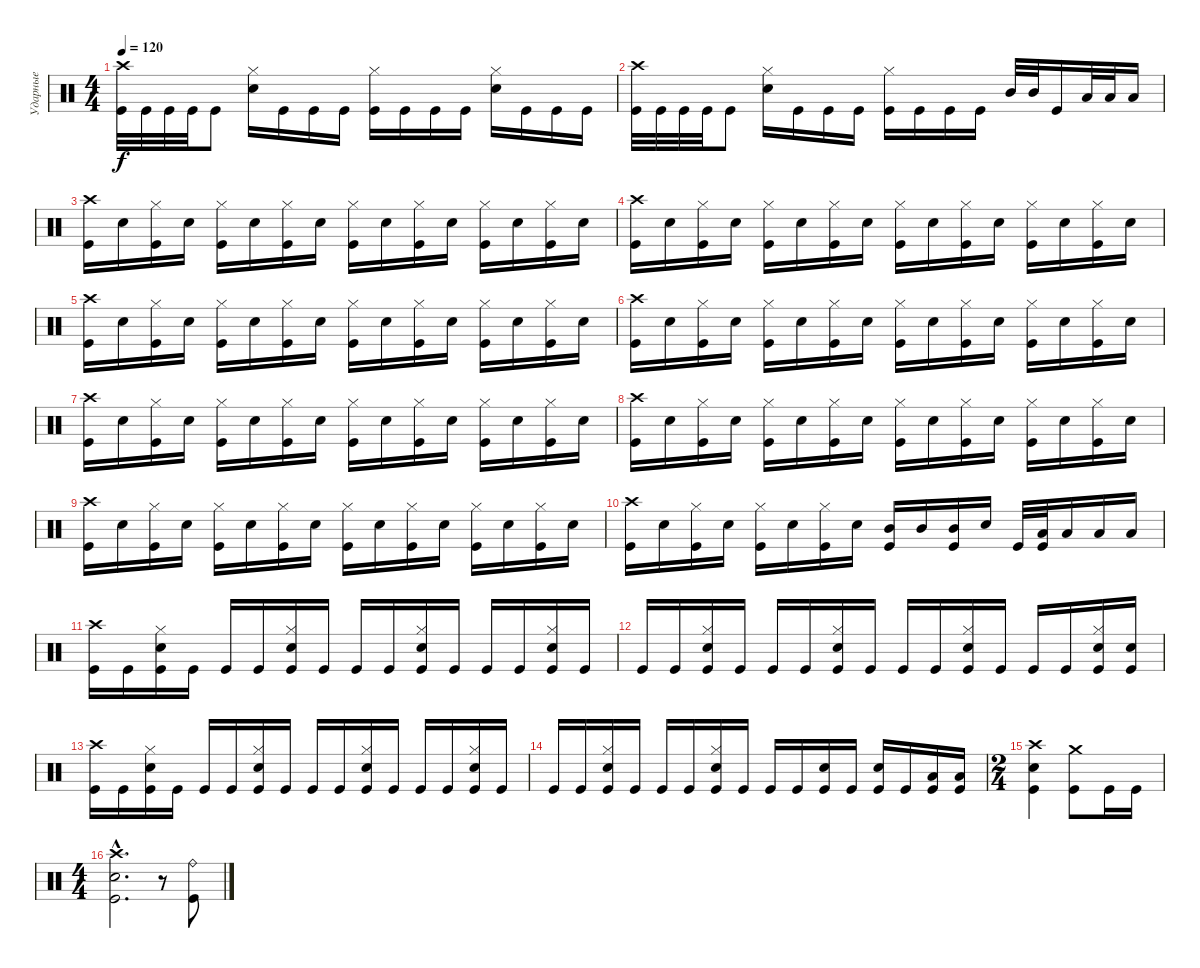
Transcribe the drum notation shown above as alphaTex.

\track ("Ударные" "Ударные") {instrument percussion}
\staff {score}
\articulation defaults
\ts (4 4)
\tempo 120
\clef neutral
\ks c
("Crash high (hit)" "Kick (hit)").32{dy f} "Kick (hit)".32 "Kick (hit)".32 "Kick (hit)".32 "Kick (hit)".8 ("Hi-Hat (closed)" "Electric Snare (hit)").16 "Kick (hit)".16 "Kick (hit)".16 "Kick (hit)".16 ("Hi-Hat (closed)" "Kick (hit)").16 "Kick (hit)".16 "Kick (hit)".16 "Kick (hit)".16 ("Hi-Hat (closed)" "Electric Snare (hit)").16 "Kick (hit)".16 "Kick (hit)".16 "Kick (hit)".16 |
("Crash high (hit)" "Kick (hit)").32 "Kick (hit)".32 "Kick (hit)".32 "Kick (hit)".32 "Kick (hit)".8 ("Hi-Hat (closed)" "Electric Snare (hit)").16 "Kick (hit)".16 "Kick (hit)".16 "Kick (hit)".16 ("Hi-Hat (closed)" "Kick (hit)").16 "Kick (hit)".16 "Kick (hit)".16 "Kick (hit)".16 "Mid Tom (hit)".32 "Mid Tom (hit)".32 "Kick (hit)".16 "Low Tom (hit)".32 "Low Tom (hit)".32 "Low Tom (hit)".16 |
("Kick (hit)" "Crash high (hit)").16 "Electric Snare (hit)".16 ("Kick (hit)" "Hi-Hat (closed)").16 "Electric Snare (hit)".16 ("Kick (hit)" "Hi-Hat (closed)").16 "Electric Snare (hit)".16 ("Kick (hit)" "Hi-Hat (closed)").16 "Electric Snare (hit)".16 ("Hi-Hat (closed)" "Kick (hit)").16 "Electric Snare (hit)".16 ("Kick (hit)" "Hi-Hat (closed)").16 "Electric Snare (hit)".16 ("Hi-Hat (closed)" "Kick (hit)").16 "Electric Snare (hit)".16 ("Hi-Hat (closed)" "Kick (hit)").16 "Electric Snare (hit)".16 |
("Kick (hit)" "Crash high (hit)").16 "Electric Snare (hit)".16 ("Kick (hit)" "Hi-Hat (closed)").16 "Electric Snare (hit)".16 ("Kick (hit)" "Hi-Hat (closed)").16 "Electric Snare (hit)".16 ("Kick (hit)" "Hi-Hat (closed)").16 "Electric Snare (hit)".16 ("Hi-Hat (closed)" "Kick (hit)").16 "Electric Snare (hit)".16 ("Kick (hit)" "Hi-Hat (closed)").16 "Electric Snare (hit)".16 ("Hi-Hat (closed)" "Kick (hit)").16 "Electric Snare (hit)".16 ("Hi-Hat (closed)" "Kick (hit)").16 "Electric Snare (hit)".16 |
("Kick (hit)" "Crash high (hit)").16 "Electric Snare (hit)".16 ("Kick (hit)" "Hi-Hat (closed)").16 "Electric Snare (hit)".16 ("Kick (hit)" "Hi-Hat (closed)").16 "Electric Snare (hit)".16 ("Kick (hit)" "Hi-Hat (closed)").16 "Electric Snare (hit)".16 ("Hi-Hat (closed)" "Kick (hit)").16 "Electric Snare (hit)".16 ("Kick (hit)" "Hi-Hat (closed)").16 "Electric Snare (hit)".16 ("Hi-Hat (closed)" "Kick (hit)").16 "Electric Snare (hit)".16 ("Hi-Hat (closed)" "Kick (hit)").16 "Electric Snare (hit)".16 |
("Kick (hit)" "Crash high (hit)").16 "Electric Snare (hit)".16 ("Kick (hit)" "Hi-Hat (closed)").16 "Electric Snare (hit)".16 ("Kick (hit)" "Hi-Hat (closed)").16 "Electric Snare (hit)".16 ("Kick (hit)" "Hi-Hat (closed)").16 "Electric Snare (hit)".16 ("Hi-Hat (closed)" "Kick (hit)").16 "Electric Snare (hit)".16 ("Kick (hit)" "Hi-Hat (closed)").16 "Electric Snare (hit)".16 ("Hi-Hat (closed)" "Kick (hit)").16 "Electric Snare (hit)".16 ("Hi-Hat (closed)" "Kick (hit)").16 "Electric Snare (hit)".16 |
("Kick (hit)" "Crash high (hit)").16 "Electric Snare (hit)".16 ("Kick (hit)" "Hi-Hat (closed)").16 "Electric Snare (hit)".16 ("Kick (hit)" "Hi-Hat (closed)").16 "Electric Snare (hit)".16 ("Kick (hit)" "Hi-Hat (closed)").16 "Electric Snare (hit)".16 ("Hi-Hat (closed)" "Kick (hit)").16 "Electric Snare (hit)".16 ("Kick (hit)" "Hi-Hat (closed)").16 "Electric Snare (hit)".16 ("Hi-Hat (closed)" "Kick (hit)").16 "Electric Snare (hit)".16 ("Hi-Hat (closed)" "Kick (hit)").16 "Electric Snare (hit)".16 |
("Kick (hit)" "Crash high (hit)").16 "Electric Snare (hit)".16 ("Kick (hit)" "Hi-Hat (closed)").16 "Electric Snare (hit)".16 ("Kick (hit)" "Hi-Hat (closed)").16 "Electric Snare (hit)".16 ("Kick (hit)" "Hi-Hat (closed)").16 "Electric Snare (hit)".16 ("Hi-Hat (closed)" "Kick (hit)").16 "Electric Snare (hit)".16 ("Kick (hit)" "Hi-Hat (closed)").16 "Electric Snare (hit)".16 ("Hi-Hat (closed)" "Kick (hit)").16 "Electric Snare (hit)".16 ("Hi-Hat (closed)" "Kick (hit)").16 "Electric Snare (hit)".16 |
("Kick (hit)" "Crash high (hit)").16 "Electric Snare (hit)".16 ("Kick (hit)" "Hi-Hat (closed)").16 "Electric Snare (hit)".16 ("Kick (hit)" "Hi-Hat (closed)").16 "Electric Snare (hit)".16 ("Kick (hit)" "Hi-Hat (closed)").16 "Electric Snare (hit)".16 ("Hi-Hat (closed)" "Kick (hit)").16 "Electric Snare (hit)".16 ("Kick (hit)" "Hi-Hat (closed)").16 "Electric Snare (hit)".16 ("Hi-Hat (closed)" "Kick (hit)").16 "Electric Snare (hit)".16 ("Hi-Hat (closed)" "Kick (hit)").16 "Electric Snare (hit)".16 |
("Kick (hit)" "Crash high (hit)").16 "Electric Snare (hit)".16 ("Kick (hit)" "Hi-Hat (closed)").16 "Electric Snare (hit)".16 ("Kick (hit)" "Hi-Hat (closed)").16 "Electric Snare (hit)".16 ("Kick (hit)" "Hi-Hat (closed)").16 "Electric Snare (hit)".16 ("Mid Tom (hit)" "Kick (hit)").16 "Mid Tom (hit)".16 ("Kick (hit)" "Mid Tom (hit)").16 "Electric Snare (hit)".16 "Kick (hit)".32 ("Low Tom (hit)" "Kick (hit)").32 "Low Tom (hit)".16 "Low Tom (hit)".16 "Low Tom (hit)".16 |
("Crash high (hit)" "Kick (hit)").16 "Kick (hit)".16 ("Hi-Hat (closed)" "Electric Snare (hit)" "Kick (hit)").16 "Kick (hit)".16 "Kick (hit)".16 "Kick (hit)".16 ("Hi-Hat (closed)" "Electric Snare (hit)" "Kick (hit)").16 "Kick (hit)".16 "Kick (hit)".16 "Kick (hit)".16 ("Hi-Hat (closed)" "Electric Snare (hit)" "Kick (hit)").16 "Kick (hit)".16 "Kick (hit)".16 "Kick (hit)".16 ("Hi-Hat (closed)" "Electric Snare (hit)" "Kick (hit)").16 "Kick (hit)".16 |
"Kick (hit)".16 "Kick (hit)".16 ("Hi-Hat (closed)" "Electric Snare (hit)" "Kick (hit)").16 "Kick (hit)".16 "Kick (hit)".16 "Kick (hit)".16 ("Hi-Hat (closed)" "Electric Snare (hit)" "Kick (hit)").16 "Kick (hit)".16 "Kick (hit)".16 "Kick (hit)".16 ("Hi-Hat (closed)" "Electric Snare (hit)" "Kick (hit)").16 "Kick (hit)".16 "Kick (hit)".16 "Kick (hit)".16 ("Hi-Hat (closed)" "Electric Snare (hit)" "Kick (hit)").16 ("Electric Snare (hit)" "Kick (hit)").16 |
("Crash high (hit)" "Kick (hit)").16 "Kick (hit)".16 ("Hi-Hat (closed)" "Electric Snare (hit)" "Kick (hit)").16 "Kick (hit)".16 "Kick (hit)".16 "Kick (hit)".16 ("Hi-Hat (closed)" "Electric Snare (hit)" "Kick (hit)").16 "Kick (hit)".16 "Kick (hit)".16 "Kick (hit)".16 ("Hi-Hat (closed)" "Electric Snare (hit)" "Kick (hit)").16 "Kick (hit)".16 "Kick (hit)".16 "Kick (hit)".16 ("Hi-Hat (closed)" "Electric Snare (hit)" "Kick (hit)").16 "Kick (hit)".16 |
"Kick (hit)".16 "Kick (hit)".16 ("Hi-Hat (closed)" "Electric Snare (hit)" "Kick (hit)").16 "Kick (hit)".16 "Kick (hit)".16 "Kick (hit)".16 ("Hi-Hat (closed)" "Electric Snare (hit)" "Kick (hit)").16 "Kick (hit)".16 "Kick (hit)".16 "Kick (hit)".16 ("Electric Snare (hit)" "Kick (hit)").16 "Kick (hit)".16 ("Electric Snare (hit)" "Kick (hit)").16 "Kick (hit)".16 ("Low Tom (hit)" "Kick (hit)").16 ("Low Tom (hit)" "Kick (hit)").16 |
\ts (2 4)
("Crash high (hit)" "Electric Snare (hit)" "Kick (hit)").4 ("Crash medium (hit)" "Kick (hit)").8 "Kick (hit)".16 "Kick (hit)".16 |
\ts (4 4)
("Kick (hit)"{hac} "Electric Snare (hit)"{hac} "Crash high (hit)"{hac}).2{d} r.8 ("Ride (bell)" "Kick (hit)").8
